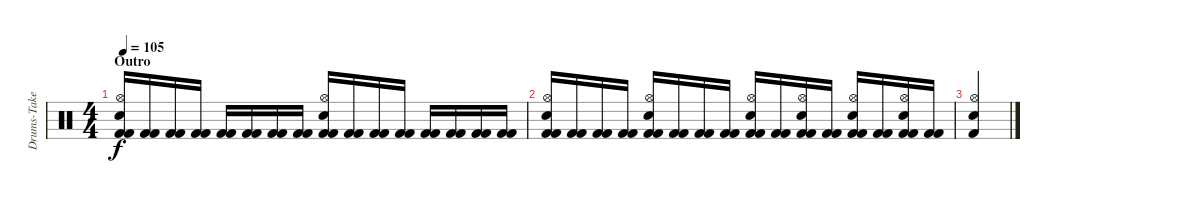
\track ("Drums-Take the midi one!" "Drums-Take") {instrument percussion}
\staff {score}
\articulation defaults
\ts (4 4)
\section ("" "Outro")
\tempo 105
\clef neutral
\ks c
("Kick (hit) 2" "Kick (hit) 2" "Hi-Hat (open)" "Snare (hit) 2").16{dy f} ("Kick (hit) 2" "Kick (hit) 2").16 ("Kick (hit) 2" "Kick (hit) 2").16 ("Kick (hit) 2" "Kick (hit) 2").16 ("Kick (hit) 2" "Kick (hit) 2").16 ("Kick (hit) 2" "Kick (hit) 2").16 ("Kick (hit) 2" "Kick (hit) 2").16 ("Kick (hit) 2" "Kick (hit) 2").16 ("Kick (hit) 2" "Kick (hit) 2" "Hi-Hat (open)" "Snare (hit) 2").16 ("Kick (hit) 2" "Kick (hit) 2").16 ("Kick (hit) 2" "Kick (hit) 2").16 ("Kick (hit) 2" "Kick (hit) 2").16 ("Kick (hit) 2" "Kick (hit) 2").16 ("Kick (hit) 2" "Kick (hit) 2").16 ("Kick (hit) 2" "Kick (hit) 2").16 ("Kick (hit) 2" "Kick (hit) 2").16 |
("Kick (hit) 2" "Kick (hit) 2" "Hi-Hat (open)" "Snare (hit) 2").16 ("Kick (hit) 2" "Kick (hit) 2").16 ("Kick (hit) 2" "Kick (hit) 2").16 ("Kick (hit) 2" "Kick (hit) 2").16 ("Kick (hit) 2" "Kick (hit) 2" "Hi-Hat (open)" "Snare (hit) 2").16 ("Kick (hit) 2" "Kick (hit) 2").16 ("Kick (hit) 2" "Kick (hit) 2").16 ("Kick (hit) 2" "Kick (hit) 2").16 ("Kick (hit) 2" "Kick (hit) 2" "Hi-Hat (open)" "Snare (hit) 2").16 ("Kick (hit) 2" "Kick (hit) 2").16 ("Kick (hit) 2" "Kick (hit) 2" "Hi-Hat (open)" "Snare (hit) 2").16 ("Kick (hit) 2" "Kick (hit) 2").16 ("Kick (hit) 2" "Kick (hit) 2" "Hi-Hat (open)" "Snare (hit) 2").16 ("Kick (hit) 2" "Kick (hit) 2").16 ("Kick (hit) 2" "Kick (hit) 2" "Hi-Hat (open)" "Snare (hit) 2").16 ("Kick (hit) 2" "Kick (hit) 2").16 |
("Kick (hit) 2" "Hi-Hat (open)" "Snare (hit) 2").4
